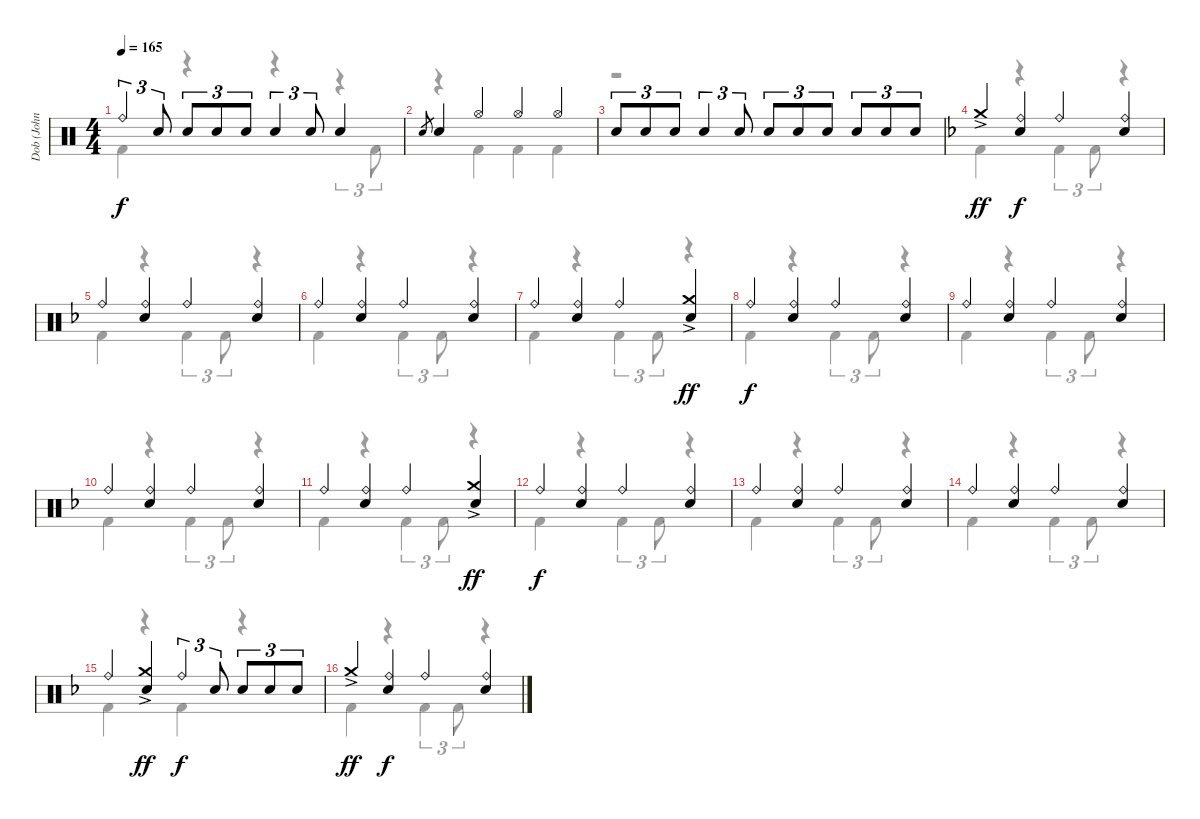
\track ("Dob (John O’Reilly)" "Dob (John ") {instrument percussion}
\staff {score}
\articulation defaults
\voice
\ts (4 4)
\tempo 165
\clef neutral
\ks c "Ride (bell)".4{tu (3 2) dy f} "Electric Snare (hit)".8{tu (3 2)} "Electric Snare (hit)".8{tu (3 2)} "Electric Snare (hit)".8{tu (3 2)} "Electric Snare (hit)".8{tu (3 2)} "Electric Snare (hit)".4{tu (3 2)} "Electric Snare (hit)".8{tu (3 2)} "Electric Snare (hit)".4
|
"Electric Snare (hit)".8{gr} "Electric Snare (hit)".4 "Hi-Hat (open)".4 "Hi-Hat (open)".4 "Hi-Hat (open)".4 |
"Electric Snare (hit)".8{tu (3 2)} "Electric Snare (hit)".8{tu (3 2)} "Electric Snare (hit)".8{tu (3 2)} "Electric Snare (hit)".4{tu (3 2)} "Electric Snare (hit)".8{tu (3 2)} "Electric Snare (hit)".8{tu (3 2)} "Electric Snare (hit)".8{tu (3 2)} "Electric Snare (hit)".8{tu (3 2)} "Electric Snare (hit)".8{tu (3 2)} "Electric Snare (hit)".8{tu (3 2)} "Electric Snare (hit)".8{tu (3 2)} |
\ks f "Crash medium (hit)"{ac}.4{dy ff}
("Ride (bell)" "Electric Snare (hit)").4{dy f} "Ride (bell)".4 ("Ride (bell)" "Electric Snare (hit)").4 |
"Ride (bell)".4 ("Ride (bell)" "Electric Snare (hit)").4 "Ride (bell)".4 ("Ride (bell)" "Electric Snare (hit)").4 |
"Ride (bell)".4 ("Ride (bell)" "Electric Snare (hit)").4 "Ride (bell)".4 ("Ride (bell)" "Electric Snare (hit)").4 |
"Ride (bell)".4 ("Ride (bell)" "Electric Snare (hit)").4 "Ride (bell)".4 ("Crash medium (hit)"{ac} "Electric Snare (hit)").4{dy ff} |
"Ride (bell)".4{dy f} ("Ride (bell)" "Electric Snare (hit)").4 "Ride (bell)".4 ("Ride (bell)" "Electric Snare (hit)").4 |
"Ride (bell)".4 ("Ride (bell)" "Electric Snare (hit)").4 "Ride (bell)".4 ("Ride (bell)" "Electric Snare (hit)").4 |
"Ride (bell)".4 ("Ride (bell)" "Electric Snare (hit)").4 "Ride (bell)".4 ("Ride (bell)" "Electric Snare (hit)").4 |
"Ride (bell)".4 ("Ride (bell)" "Electric Snare (hit)").4 "Ride (bell)".4 ("Crash medium (hit)"{ac} "Electric Snare (hit)").4{dy ff} |
"Ride (bell)".4{dy f} ("Ride (bell)" "Electric Snare (hit)").4 "Ride (bell)".4 ("Ride (bell)" "Electric Snare (hit)").4 |
"Ride (bell)".4 ("Ride (bell)" "Electric Snare (hit)").4 "Ride (bell)".4 ("Ride (bell)" "Electric Snare (hit)").4 |
"Ride (bell)".4 ("Ride (bell)" "Electric Snare (hit)").4 "Ride (bell)".4 ("Ride (bell)" "Electric Snare (hit)").4 |
"Ride (bell)".4 ("Crash medium (hit)"{ac} "Electric Snare (hit)").4{dy ff} "Ride (bell)".4{tu (3 2) dy f} "Electric Snare (hit)".8{tu (3 2)} "Electric Snare (hit)".8{tu (3 2)} "Electric Snare (hit)".8{tu (3 2)} "Electric Snare (hit)".8{tu (3 2)} |
"Crash medium (hit)"{ac}.4{dy ff} ("Ride (bell)" "Electric Snare (hit)").4{dy f} "Ride (bell)".4 ("Ride (bell)" "Electric Snare (hit)").4
\voice
\clef neutral
\ottava regular
\simile none
\ks c "Kick (hit) 2".4{dy f}
r.4 r.4 r.4{tu (3 2)} "Kick (hit) 2".8{tu (3 2)} |
r.4 "Kick (hit) 2".4 "Kick (hit) 2".4 "Kick (hit) 2".4 |
r.1 |
\ks f "Kick (hit) 2".4
r.4 "Kick (hit) 2".4{tu (3 2)} "Kick (hit) 2".8{tu (3 2)} r.4 |
"Kick (hit) 2".4 r.4 "Kick (hit) 2".4{tu (3 2)} "Kick (hit) 2".8{tu (3 2)} r.4 |
"Kick (hit) 2".4 r.4 "Kick (hit) 2".4{tu (3 2)} "Kick (hit) 2".8{tu (3 2)} r.4 |
"Kick (hit) 2".4 r.4 "Kick (hit) 2".4{tu (3 2)} "Kick (hit) 2".8{tu (3 2)} r.4 |
"Kick (hit) 2".4 r.4 "Kick (hit) 2".4{tu (3 2)} "Kick (hit) 2".8{tu (3 2)} r.4 |
"Kick (hit) 2".4 r.4 "Kick (hit) 2".4{tu (3 2)} "Kick (hit) 2".8{tu (3 2)} r.4 |
"Kick (hit) 2".4 r.4 "Kick (hit) 2".4{tu (3 2)} "Kick (hit) 2".8{tu (3 2)} r.4 |
"Kick (hit) 2".4 r.4 "Kick (hit) 2".4{tu (3 2)} "Kick (hit) 2".8{tu (3 2)} r.4 |
"Kick (hit) 2".4 r.4 "Kick (hit) 2".4{tu (3 2)} "Kick (hit) 2".8{tu (3 2)} r.4 |
"Kick (hit) 2".4 r.4 "Kick (hit) 2".4{tu (3 2)} "Kick (hit) 2".8{tu (3 2)} r.4 |
"Kick (hit) 2".4 r.4 "Kick (hit) 2".4{tu (3 2)} "Kick (hit) 2".8{tu (3 2)} r.4 |
"Kick (hit) 2".4 r.4 "Kick (hit) 2".4 r.4 |
"Kick (hit) 2".4 r.4 "Kick (hit) 2".4{tu (3 2)} "Kick (hit) 2".8{tu (3 2)} r.4
